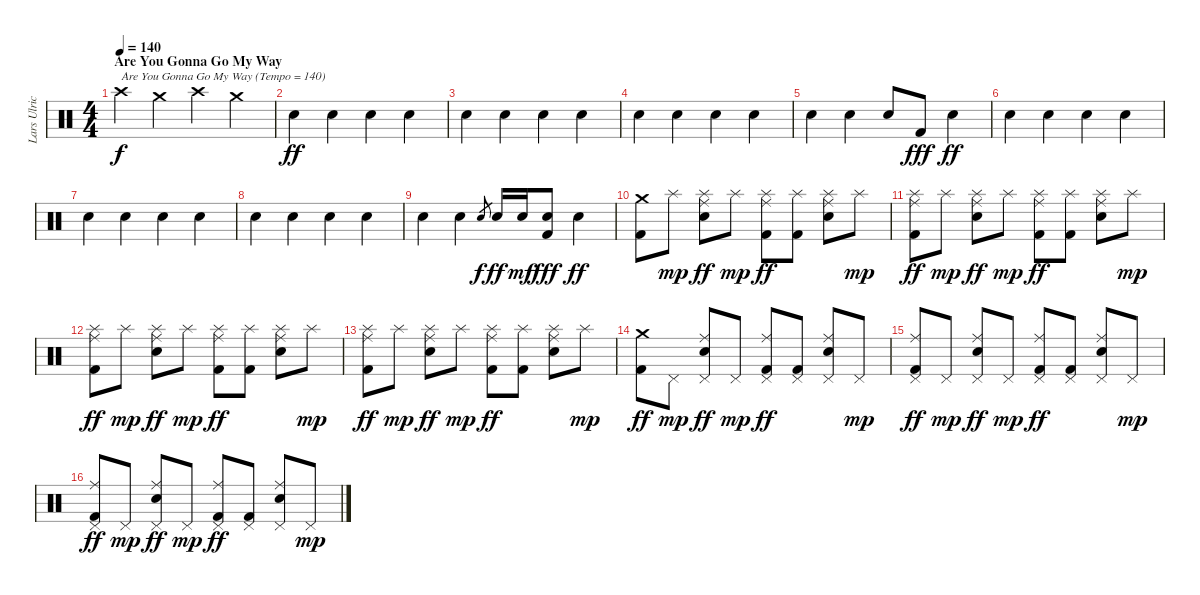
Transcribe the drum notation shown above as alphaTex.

\track ("Lars Ulrich" "Lars Ulric") {instrument percussion}
\staff {score}
\articulation defaults
\ts (4 4)
\section ("" "Are You Gonna Go My Way ")
\tempo 140
\clef neutral
\ks c "Crash high (hit)".4{txt "Are You Gonna Go My Way (Tempo = 140)" dy f} "Crash medium (hit)".4 "Crash high (hit)".4 "Crash medium (hit)".4
|
"Electric Snare (hit)".4{dy ff} "Electric Snare (hit)".4 "Electric Snare (hit)".4 "Electric Snare (hit)".4 |
"Electric Snare (hit)".4 "Electric Snare (hit)".4 "Electric Snare (hit)".4 "Electric Snare (hit)".4 |
"Electric Snare (hit)".4 "Electric Snare (hit)".4 "Electric Snare (hit)".4 "Electric Snare (hit)".4 |
"Electric Snare (hit)".4 "Electric Snare (hit)".4 "Electric Snare (hit)".8 "Kick (hit) 2".8{dy fff} "Electric Snare (hit)".4{dy ff} |
"Electric Snare (hit)".4 "Electric Snare (hit)".4 "Electric Snare (hit)".4 "Electric Snare (hit)".4 |
"Electric Snare (hit)".4 "Electric Snare (hit)".4 "Electric Snare (hit)".4 "Electric Snare (hit)".4 |
"Electric Snare (hit)".4 "Electric Snare (hit)".4 "Electric Snare (hit)".4 "Electric Snare (hit)".4 |
"Electric Snare (hit)".4 "Electric Snare (hit)".4 "Electric Snare (hit)".8{gr dy f} "Electric Snare (hit)".16{dy ff} "Electric Snare (hit)".16{dy mf} ("Electric Snare (hit)" "Kick (hit) 2").8{dy fff} "Electric Snare (hit)".4{dy ff} |
("Crash medium (hit)" "Kick (hit) 2").8 "Splash (hit)".8{dy mp} ("Ride (middle)" "Splash (hit)" "Electric Snare (hit)").8{dy ff} "Splash (hit)".8{dy mp} ("Ride (middle)" "Splash (hit)" "Kick (hit) 2").8{dy ff} ("Splash (hit)" "Kick (hit) 2").8 ("Ride (middle)" "Splash (hit)" "Electric Snare (hit)").8 "Splash (hit)".8{dy mp} |
("Ride (middle)" "Splash (hit)" "Kick (hit) 2").8{dy ff} "Splash (hit)".8{dy mp} ("Ride (middle)" "Splash (hit)" "Electric Snare (hit)").8{dy ff} "Splash (hit)".8{dy mp} ("Ride (middle)" "Splash (hit)" "Kick (hit) 2").8{dy ff} ("Splash (hit)" "Kick (hit) 2").8 ("Ride (middle)" "Splash (hit)" "Electric Snare (hit)").8 "Splash (hit)".8{dy mp} |
("Ride (middle)" "Splash (hit)" "Kick (hit) 2").8{dy ff} "Splash (hit)".8{dy mp} ("Ride (middle)" "Splash (hit)" "Electric Snare (hit)").8{dy ff} "Splash (hit)".8{dy mp} ("Ride (middle)" "Splash (hit)" "Kick (hit) 2").8{dy ff} ("Splash (hit)" "Kick (hit) 2").8 ("Ride (middle)" "Splash (hit)" "Electric Snare (hit)").8 "Splash (hit)".8{dy mp} |
("Ride (middle)" "Splash (hit)" "Kick (hit) 2").8{dy ff} "Splash (hit)".8{dy mp} ("Ride (middle)" "Splash (hit)" "Electric Snare (hit)").8{dy ff} "Splash (hit)".8{dy mp} ("Ride (middle)" "Splash (hit)" "Kick (hit) 2").8{dy ff} ("Splash (hit)" "Kick (hit) 2").8 ("Ride (middle)" "Splash (hit)" "Electric Snare (hit)").8 "Splash (hit)".8{dy mp} |
("Crash medium (hit)" "Kick (hit) 2").8{dy ff} "Pedal Hi-Hat (hit)".8{dy mp} ("Ride (middle)" "Pedal Hi-Hat (hit)" "Electric Snare (hit)").8{dy ff} "Pedal Hi-Hat (hit)".8{dy mp} ("Ride (middle)" "Pedal Hi-Hat (hit)" "Kick (hit) 2").8{dy ff} ("Pedal Hi-Hat (hit)" "Kick (hit) 2").8 ("Ride (middle)" "Pedal Hi-Hat (hit)" "Electric Snare (hit)").8 "Pedal Hi-Hat (hit)".8{dy mp} |
("Ride (middle)" "Pedal Hi-Hat (hit)" "Kick (hit) 2").8{dy ff} "Pedal Hi-Hat (hit)".8{dy mp} ("Ride (middle)" "Pedal Hi-Hat (hit)" "Electric Snare (hit)").8{dy ff} "Pedal Hi-Hat (hit)".8{dy mp} ("Ride (middle)" "Pedal Hi-Hat (hit)" "Kick (hit) 2").8{dy ff} ("Pedal Hi-Hat (hit)" "Kick (hit) 2").8 ("Ride (middle)" "Pedal Hi-Hat (hit)" "Electric Snare (hit)").8 "Pedal Hi-Hat (hit)".8{dy mp} |
("Ride (middle)" "Pedal Hi-Hat (hit)" "Kick (hit) 2").8{dy ff} "Pedal Hi-Hat (hit)".8{dy mp} ("Ride (middle)" "Pedal Hi-Hat (hit)" "Electric Snare (hit)").8{dy ff} "Pedal Hi-Hat (hit)".8{dy mp} ("Ride (middle)" "Pedal Hi-Hat (hit)" "Kick (hit) 2").8{dy ff} ("Pedal Hi-Hat (hit)" "Kick (hit) 2").8 ("Ride (middle)" "Pedal Hi-Hat (hit)" "Electric Snare (hit)").8 "Pedal Hi-Hat (hit)".8{dy mp}
